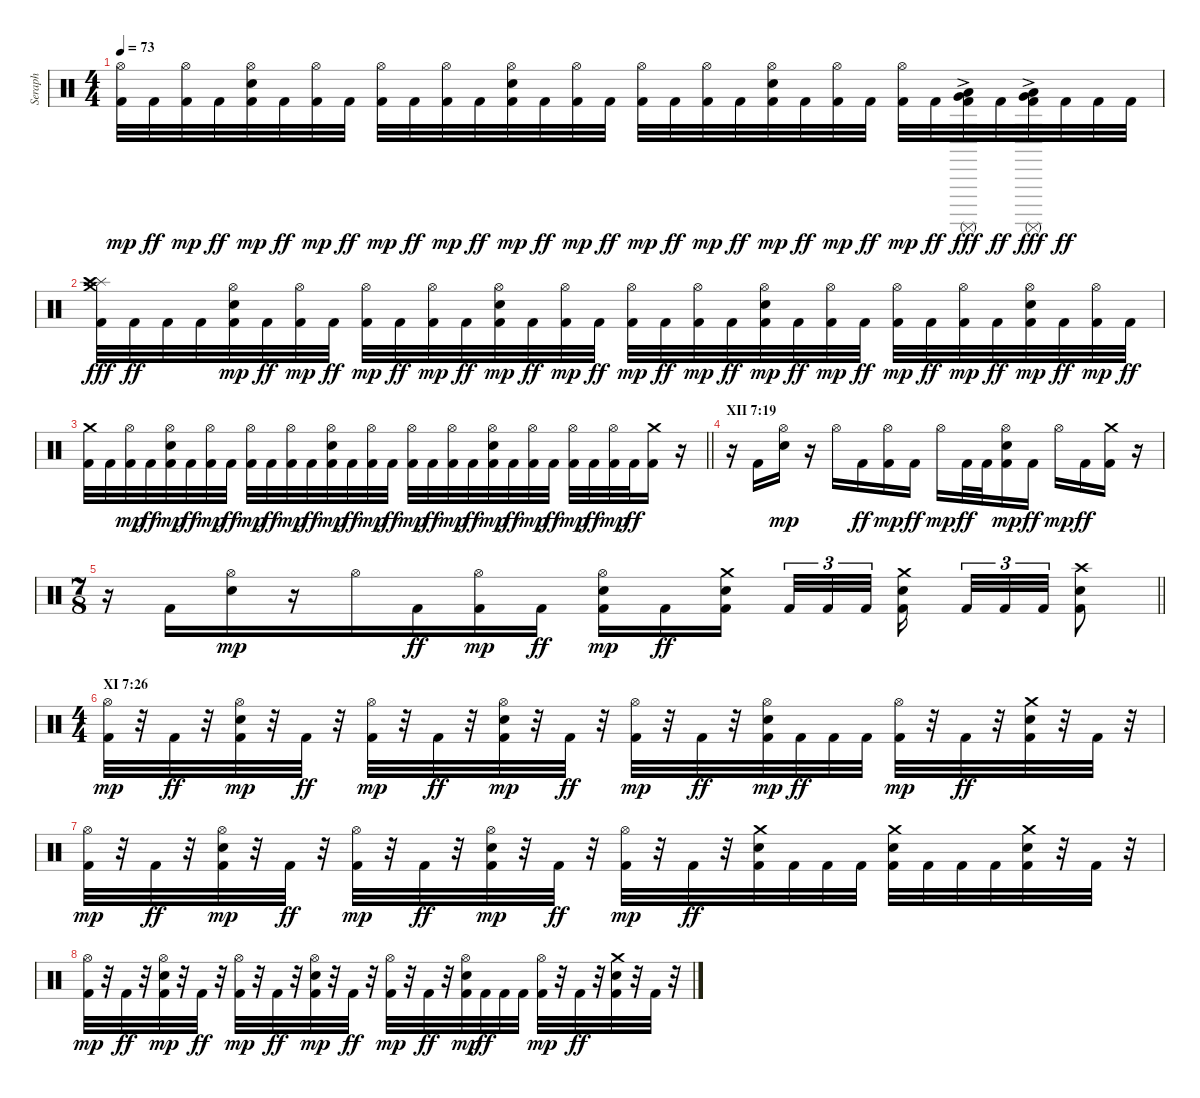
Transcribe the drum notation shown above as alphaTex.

\track ("Seraph" "Seraph") {instrument percussion}
\staff {score}
\articulation defaults
\ts (4 4)
\tempo 73
\clef neutral
\ks c
("Kick (hit) 2" "Hi-Hat (open)").32{dy mp} "Kick (hit) 2".32{dy ff} ("Kick (hit) 2" "Hi-Hat (open)").32{dy mp} "Kick (hit) 2".32{dy ff} ("Kick (hit) 2" "Electric Snare (hit)" "Hi-Hat (open)").32{dy mp} "Kick (hit) 2".32{dy ff} ("Kick (hit) 2" "Hi-Hat (open)").32{dy mp} "Kick (hit) 2".32{dy ff} ("Kick (hit) 2" "Hi-Hat (open)").32{dy mp} "Kick (hit) 2".32{dy ff} ("Kick (hit) 2" "Hi-Hat (open)").32{dy mp} "Kick (hit) 2".32{dy ff} ("Kick (hit) 2" "Electric Snare (hit)" "Hi-Hat (open)").32{dy mp} "Kick (hit) 2".32{dy ff} ("Kick (hit) 2" "Hi-Hat (open)").32{dy mp} "Kick (hit) 2".32{dy ff} ("Kick (hit) 2" "Hi-Hat (open)").32{dy mp} "Kick (hit) 2".32{dy ff} ("Kick (hit) 2" "Hi-Hat (open)").32{dy mp} "Kick (hit) 2".32{dy ff} ("Kick (hit) 2" "Electric Snare (hit)" "Hi-Hat (open)").32{dy mp} "Kick (hit) 2".32{dy ff} ("Kick (hit) 2" "Hi-Hat (open)").32{dy mp} "Kick (hit) 2".32{dy ff} ("Kick (hit) 2" "Hi-Hat (open)").32{dy mp} "Kick (hit) 2".32{dy ff} ("Kick (hit) 2"{ac} "Surdo (mute)" "Low Tom (hit)"{ac} "Very Low Tom (hit)"{ac}).32{dy fff} "Kick (hit) 2".32{dy ff} ("Kick (hit) 2"{ac} "Surdo (mute)" "Low Tom (hit)"{ac} "Very Low Tom (hit)"{ac}).32{dy fff} "Kick (hit) 2".32{dy ff} "Kick (hit) 2".32 "Kick (hit) 2".32 |
("Kick (hit) 2" "Splash (hit)" "Crash high (hit)" "Crash medium (hit)").32{dy fff} "Kick (hit) 2".32{dy ff} "Kick (hit) 2".32 "Kick (hit) 2".32 ("Kick (hit) 2" "Electric Snare (hit)" "Hi-Hat (open)").32{dy mp} "Kick (hit) 2".32{dy ff} ("Kick (hit) 2" "Hi-Hat (open)").32{dy mp} "Kick (hit) 2".32{dy ff} ("Kick (hit) 2" "Hi-Hat (open)").32{dy mp} "Kick (hit) 2".32{dy ff} ("Kick (hit) 2" "Hi-Hat (open)").32{dy mp} "Kick (hit) 2".32{dy ff} ("Kick (hit) 2" "Electric Snare (hit)" "Hi-Hat (open)").32{dy mp} "Kick (hit) 2".32{dy ff} ("Kick (hit) 2" "Hi-Hat (open)").32{dy mp} "Kick (hit) 2".32{dy ff} ("Kick (hit) 2" "Hi-Hat (open)").32{dy mp} "Kick (hit) 2".32{dy ff} ("Kick (hit) 2" "Hi-Hat (open)").32{dy mp} "Kick (hit) 2".32{dy ff} ("Kick (hit) 2" "Electric Snare (hit)" "Hi-Hat (open)").32{dy mp} "Kick (hit) 2".32{dy ff} ("Kick (hit) 2" "Hi-Hat (open)").32{dy mp} "Kick (hit) 2".32{dy ff} ("Kick (hit) 2" "Hi-Hat (open)").32{dy mp} "Kick (hit) 2".32{dy ff} ("Kick (hit) 2" "Hi-Hat (open)").32{dy mp} "Kick (hit) 2".32{dy ff} ("Kick (hit) 2" "Electric Snare (hit)" "Hi-Hat (open)").32{dy mp} "Kick (hit) 2".32{dy ff} ("Kick (hit) 2" "Hi-Hat (open)").32{dy mp} "Kick (hit) 2".32{dy ff} |
\barLineRight lightlight
("Kick (hit) 2" "Crash medium (hit)").32 "Kick (hit) 2".32 ("Kick (hit) 2" "Hi-Hat (open)").32{dy mp} "Kick (hit) 2".32{dy ff} ("Kick (hit) 2" "Electric Snare (hit)" "Hi-Hat (open)").32{dy mp} "Kick (hit) 2".32{dy ff} ("Kick (hit) 2" "Hi-Hat (open)").32{dy mp} "Kick (hit) 2".32{dy ff} ("Kick (hit) 2" "Hi-Hat (open)").32{dy mp} "Kick (hit) 2".32{dy ff} ("Kick (hit) 2" "Hi-Hat (open)").32{dy mp} "Kick (hit) 2".32{dy ff} ("Kick (hit) 2" "Electric Snare (hit)" "Hi-Hat (open)").32{dy mp} "Kick (hit) 2".32{dy ff} ("Kick (hit) 2" "Hi-Hat (open)").32{dy mp} "Kick (hit) 2".32{dy ff} ("Kick (hit) 2" "Hi-Hat (open)").32{dy mp} "Kick (hit) 2".32{dy ff} ("Kick (hit) 2" "Hi-Hat (open)").32{dy mp} "Kick (hit) 2".32{dy ff} ("Kick (hit) 2" "Electric Snare (hit)" "Hi-Hat (open)").32{dy mp} "Kick (hit) 2".32{dy ff} ("Kick (hit) 2" "Hi-Hat (open)").32{dy mp} "Kick (hit) 2".32{dy ff} ("Kick (hit) 2" "Hi-Hat (open)").32{dy mp} "Kick (hit) 2".32{dy ff} ("Kick (hit) 2" "Hi-Hat (open)").32{dy mp} "Kick (hit) 2".32{dy ff} ("Kick (hit) 2" "Crash medium (hit)").16 r.16 |
\section ("" "XII 7:19")
r.16 "Kick (hit) 2".16 ("Electric Snare (hit)" "Hi-Hat (open)").16{dy mp} r.16 "Hi-Hat (open)".16 "Kick (hit) 2".16{dy ff} ("Kick (hit) 2" "Hi-Hat (open)").16{dy mp} "Kick (hit) 2".16{dy ff} "Hi-Hat (open)".16{dy mp} "Kick (hit) 2".32{dy ff} "Kick (hit) 2".32 ("Kick (hit) 2" "Electric Snare (hit)" "Hi-Hat (open)").16{dy mp} "Kick (hit) 2".16{dy ff} "Hi-Hat (open)".16{dy mp} "Kick (hit) 2".16{dy ff} ("Kick (hit) 2" "Crash medium (hit)").16 r.16 |
\ts (7 8)
\barLineRight lightlight
r.16 "Kick (hit) 2".16 ("Electric Snare (hit)" "Hi-Hat (open)").16{dy mp} r.16 "Hi-Hat (open)".16 "Kick (hit) 2".16{dy ff} ("Kick (hit) 2" "Hi-Hat (open)").16{dy mp} "Kick (hit) 2".16{dy ff} ("Kick (hit) 2" "Electric Snare (hit)" "Hi-Hat (open)").16{dy mp} "Kick (hit) 2".16{dy ff} ("Kick (hit) 2" "Electric Snare (hit)" "Crash medium (hit)").16{beam splitsecondary} "Kick (hit) 2".32{tu (3 2)} "Kick (hit) 2".32{tu (3 2)} "Kick (hit) 2".32{tu (3 2)} ("Kick (hit) 2" "Electric Snare (hit)" "Crash medium (hit)").16{beam splitsecondary} "Kick (hit) 2".32{tu (3 2)} "Kick (hit) 2".32{tu (3 2)} "Kick (hit) 2".32{tu (3 2)} ("Kick (hit) 2" "Electric Snare (hit)" "Crash high (hit)").8 |
\ts (4 4)
\section ("" "XI 7:26")
("Kick (hit) 2" "Hi-Hat (open)").32{dy mp} r.32 "Kick (hit) 2".32{dy ff} r.32 ("Kick (hit) 2" "Electric Snare (hit)" "Hi-Hat (open)").32{dy mp} r.32 "Kick (hit) 2".32{dy ff} r.32 ("Kick (hit) 2" "Hi-Hat (open)").32{dy mp} r.32 "Kick (hit) 2".32{dy ff} r.32 ("Kick (hit) 2" "Electric Snare (hit)" "Hi-Hat (open)").32{dy mp} r.32 "Kick (hit) 2".32{dy ff} r.32 ("Kick (hit) 2" "Hi-Hat (open)").32{dy mp} r.32 "Kick (hit) 2".32{dy ff} r.32 ("Kick (hit) 2" "Electric Snare (hit)" "Hi-Hat (open)").32{dy mp} "Kick (hit) 2".32{dy ff} "Kick (hit) 2".32 "Kick (hit) 2".32 ("Kick (hit) 2" "Hi-Hat (open)").32{dy mp} r.32 "Kick (hit) 2".32{dy ff} r.32 ("Kick (hit) 2" "Electric Snare (hit)" "Crash medium (hit)").32 r.32 "Kick (hit) 2".32 r.32 |
("Kick (hit) 2" "Hi-Hat (open)").32{dy mp} r.32 "Kick (hit) 2".32{dy ff} r.32 ("Kick (hit) 2" "Electric Snare (hit)" "Hi-Hat (open)").32{dy mp} r.32 "Kick (hit) 2".32{dy ff} r.32 ("Kick (hit) 2" "Hi-Hat (open)").32{dy mp} r.32 "Kick (hit) 2".32{dy ff} r.32 ("Kick (hit) 2" "Electric Snare (hit)" "Hi-Hat (open)").32{dy mp} r.32 "Kick (hit) 2".32{dy ff} r.32 ("Kick (hit) 2" "Hi-Hat (open)").32{dy mp} r.32 "Kick (hit) 2".32{dy ff} r.32 ("Kick (hit) 2" "Electric Snare (hit)" "Crash medium (hit)").32 "Kick (hit) 2".32 "Kick (hit) 2".32 "Kick (hit) 2".32 ("Kick (hit) 2" "Electric Snare (hit)" "Crash medium (hit)").32 "Kick (hit) 2".32 "Kick (hit) 2".32 "Kick (hit) 2".32 ("Kick (hit) 2" "Electric Snare (hit)" "Crash medium (hit)").32 r.32 "Kick (hit) 2".32 r.32 |
("Kick (hit) 2" "Hi-Hat (open)").32{dy mp} r.32 "Kick (hit) 2".32{dy ff} r.32 ("Kick (hit) 2" "Electric Snare (hit)" "Hi-Hat (open)").32{dy mp} r.32 "Kick (hit) 2".32{dy ff} r.32 ("Kick (hit) 2" "Hi-Hat (open)").32{dy mp} r.32 "Kick (hit) 2".32{dy ff} r.32 ("Kick (hit) 2" "Electric Snare (hit)" "Hi-Hat (open)").32{dy mp} r.32 "Kick (hit) 2".32{dy ff} r.32 ("Kick (hit) 2" "Hi-Hat (open)").32{dy mp} r.32 "Kick (hit) 2".32{dy ff} r.32 ("Kick (hit) 2" "Electric Snare (hit)" "Hi-Hat (open)").32{dy mp} "Kick (hit) 2".32{dy ff} "Kick (hit) 2".32 "Kick (hit) 2".32 ("Kick (hit) 2" "Hi-Hat (open)").32{dy mp} r.32 "Kick (hit) 2".32{dy ff} r.32 ("Kick (hit) 2" "Electric Snare (hit)" "Crash medium (hit)").32 r.32 "Kick (hit) 2".32 r.32
